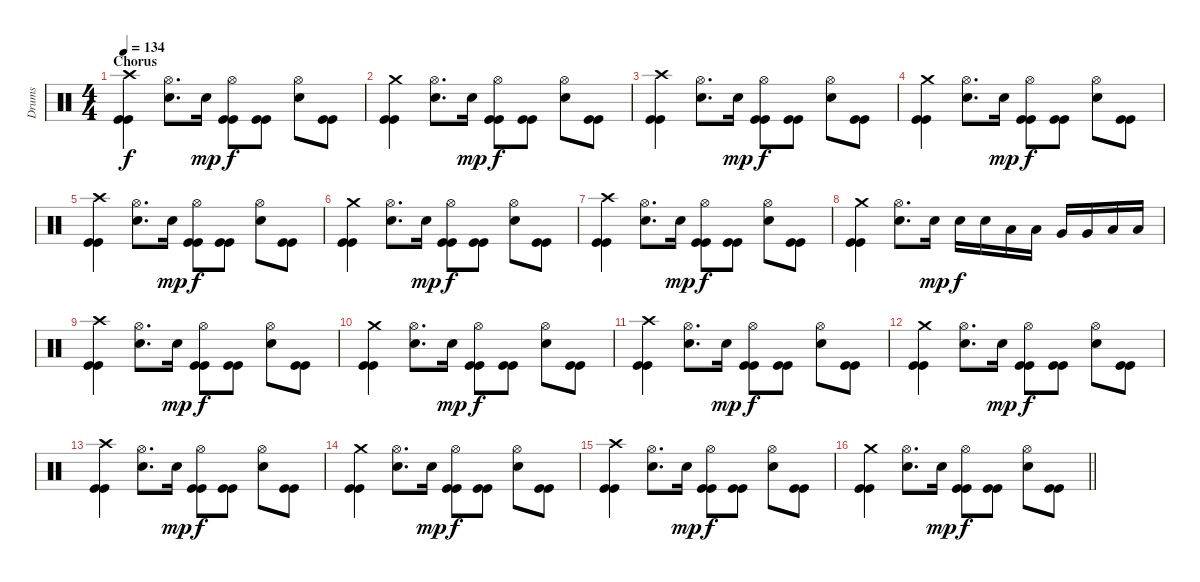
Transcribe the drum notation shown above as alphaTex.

\track ("Drums" "Drums") {instrument percussion}
\staff {score}
\articulation defaults
\ts (4 4)
\section ("" "Chorus")
\tempo 134
\clef neutral
\ks c
("Crash high (hit)" "Kick (hit)" "Kick (hit)").4{dy f} ("Hi-Hat (open)" "Electric Snare (hit)").8{d} "Electric Snare (hit)".16{dy mp} ("Hi-Hat (open)" "Kick (hit)" "Kick (hit)").8{dy f} ("Kick (hit)" "Kick (hit)").8 ("Hi-Hat (open)" "Electric Snare (hit)").8 ("Kick (hit)" "Kick (hit)").8 |
("Crash medium (hit)" "Kick (hit)" "Kick (hit)").4 ("Hi-Hat (open)" "Electric Snare (hit)").8{d} "Electric Snare (hit)".16{dy mp} ("Hi-Hat (open)" "Kick (hit)" "Kick (hit)").8{dy f} ("Kick (hit)" "Kick (hit)").8 ("Hi-Hat (open)" "Electric Snare (hit)").8 ("Kick (hit)" "Kick (hit)").8 |
("Crash high (hit)" "Kick (hit)" "Kick (hit)").4 ("Hi-Hat (open)" "Electric Snare (hit)").8{d} "Electric Snare (hit)".16{dy mp} ("Hi-Hat (open)" "Kick (hit)" "Kick (hit)").8{dy f} ("Kick (hit)" "Kick (hit)").8 ("Hi-Hat (open)" "Electric Snare (hit)").8 ("Kick (hit)" "Kick (hit)").8 |
("Crash medium (hit)" "Kick (hit)" "Kick (hit)").4 ("Hi-Hat (open)" "Electric Snare (hit)").8{d} "Electric Snare (hit)".16{dy mp} ("Hi-Hat (open)" "Kick (hit)" "Kick (hit)").8{dy f} ("Kick (hit)" "Kick (hit)").8 ("Hi-Hat (open)" "Electric Snare (hit)").8 ("Kick (hit)" "Kick (hit)").8 |
("Crash high (hit)" "Kick (hit)" "Kick (hit)").4 ("Hi-Hat (open)" "Electric Snare (hit)").8{d} "Electric Snare (hit)".16{dy mp} ("Hi-Hat (open)" "Kick (hit)" "Kick (hit)").8{dy f} ("Kick (hit)" "Kick (hit)").8 ("Hi-Hat (open)" "Electric Snare (hit)").8 ("Kick (hit)" "Kick (hit)").8 |
("Crash medium (hit)" "Kick (hit)" "Kick (hit)").4 ("Hi-Hat (open)" "Electric Snare (hit)").8{d} "Electric Snare (hit)".16{dy mp} ("Hi-Hat (open)" "Kick (hit)" "Kick (hit)").8{dy f} ("Kick (hit)" "Kick (hit)").8 ("Hi-Hat (open)" "Electric Snare (hit)").8 ("Kick (hit)" "Kick (hit)").8 |
("Crash high (hit)" "Kick (hit)" "Kick (hit)").4 ("Hi-Hat (open)" "Electric Snare (hit)").8{d} "Electric Snare (hit)".16{dy mp} ("Hi-Hat (open)" "Kick (hit)" "Kick (hit)").8{dy f} ("Kick (hit)" "Kick (hit)").8 ("Hi-Hat (open)" "Electric Snare (hit)").8 ("Kick (hit)" "Kick (hit)").8 |
("Crash medium (hit)" "Kick (hit)" "Kick (hit)").4 ("Hi-Hat (open)" "Electric Snare (hit)").8{d} "Electric Snare (hit)".16{dy mp} "Electric Snare (hit)".16{dy f} "Electric Snare (hit)".16 "Low Tom (hit)".16 "Low Tom (hit)".16 "Very Low Tom (hit)".16 "Very Low Tom (hit)".16 "Low Floor Tom (hit)".16 "Low Floor Tom (hit)".16 |
("Crash high (hit)" "Kick (hit)" "Kick (hit)").4 ("Hi-Hat (open)" "Electric Snare (hit)").8{d} "Electric Snare (hit)".16{dy mp} ("Hi-Hat (open)" "Kick (hit)" "Kick (hit)").8{dy f} ("Kick (hit)" "Kick (hit)").8 ("Hi-Hat (open)" "Electric Snare (hit)").8 ("Kick (hit)" "Kick (hit)").8 |
("Crash medium (hit)" "Kick (hit)" "Kick (hit)").4 ("Hi-Hat (open)" "Electric Snare (hit)").8{d} "Electric Snare (hit)".16{dy mp} ("Hi-Hat (open)" "Kick (hit)" "Kick (hit)").8{dy f} ("Kick (hit)" "Kick (hit)").8 ("Hi-Hat (open)" "Electric Snare (hit)").8 ("Kick (hit)" "Kick (hit)").8 |
("Crash high (hit)" "Kick (hit)" "Kick (hit)").4 ("Hi-Hat (open)" "Electric Snare (hit)").8{d} "Electric Snare (hit)".16{dy mp} ("Hi-Hat (open)" "Kick (hit)" "Kick (hit)").8{dy f} ("Kick (hit)" "Kick (hit)").8 ("Hi-Hat (open)" "Electric Snare (hit)").8 ("Kick (hit)" "Kick (hit)").8 |
("Crash medium (hit)" "Kick (hit)" "Kick (hit)").4 ("Hi-Hat (open)" "Electric Snare (hit)").8{d} "Electric Snare (hit)".16{dy mp} ("Hi-Hat (open)" "Kick (hit)" "Kick (hit)").8{dy f} ("Kick (hit)" "Kick (hit)").8 ("Hi-Hat (open)" "Electric Snare (hit)").8 ("Kick (hit)" "Kick (hit)").8 |
("Crash high (hit)" "Kick (hit)" "Kick (hit)").4 ("Hi-Hat (open)" "Electric Snare (hit)").8{d} "Electric Snare (hit)".16{dy mp} ("Hi-Hat (open)" "Kick (hit)" "Kick (hit)").8{dy f} ("Kick (hit)" "Kick (hit)").8 ("Hi-Hat (open)" "Electric Snare (hit)").8 ("Kick (hit)" "Kick (hit)").8 |
("Crash medium (hit)" "Kick (hit)" "Kick (hit)").4 ("Hi-Hat (open)" "Electric Snare (hit)").8{d} "Electric Snare (hit)".16{dy mp} ("Hi-Hat (open)" "Kick (hit)" "Kick (hit)").8{dy f} ("Kick (hit)" "Kick (hit)").8 ("Hi-Hat (open)" "Electric Snare (hit)").8 ("Kick (hit)" "Kick (hit)").8 |
("Crash high (hit)" "Kick (hit)" "Kick (hit)").4 ("Hi-Hat (open)" "Electric Snare (hit)").8{d} "Electric Snare (hit)".16{dy mp} ("Hi-Hat (open)" "Kick (hit)" "Kick (hit)").8{dy f} ("Kick (hit)" "Kick (hit)").8 ("Hi-Hat (open)" "Electric Snare (hit)").8 ("Kick (hit)" "Kick (hit)").8 |
\barLineRight lightlight
("Crash medium (hit)" "Kick (hit)" "Kick (hit)").4 ("Hi-Hat (open)" "Electric Snare (hit)").8{d} "Electric Snare (hit)".16{dy mp} ("Hi-Hat (open)" "Kick (hit)" "Kick (hit)").8{dy f} ("Kick (hit)" "Kick (hit)").8 ("Hi-Hat (open)" "Electric Snare (hit)").8 ("Kick (hit)" "Kick (hit)").8
